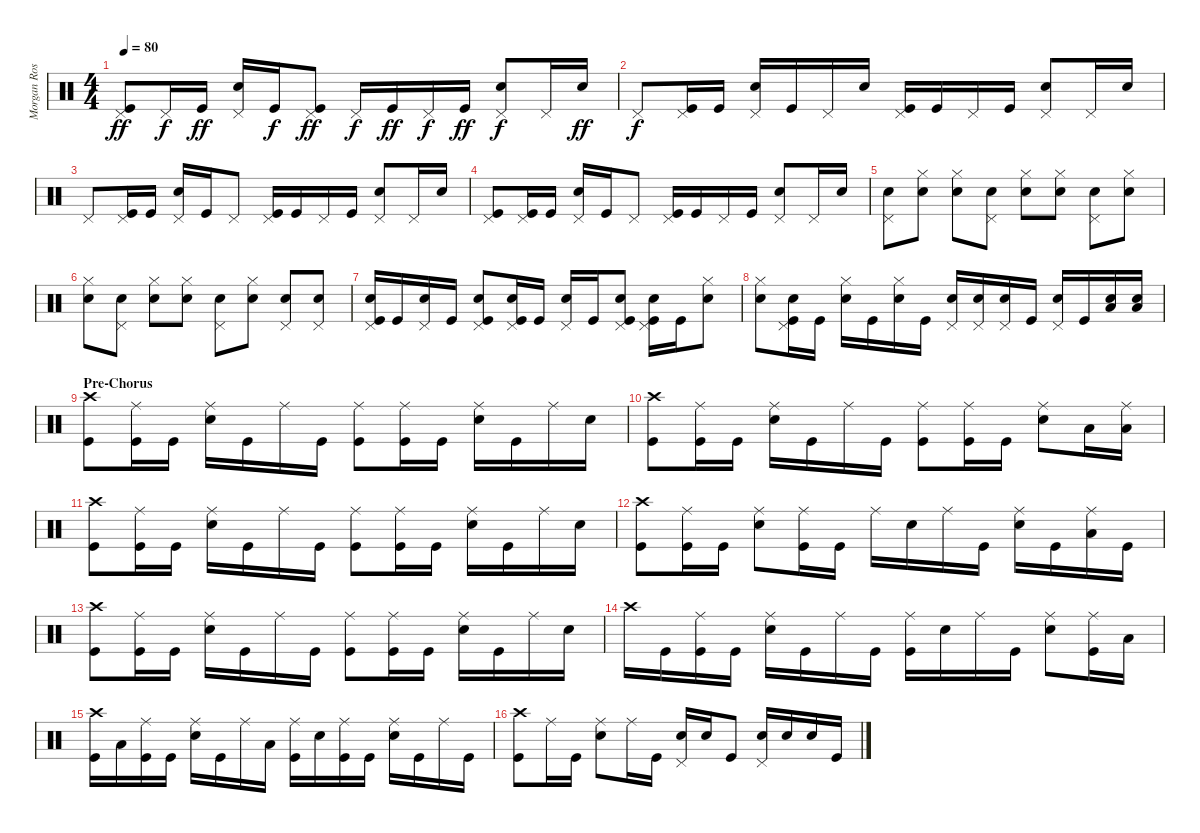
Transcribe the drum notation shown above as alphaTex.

\track ("Morgan Rose" "Morgan Ros") {instrument percussion}
\staff {score}
\articulation defaults
\ts (4 4)
\tempo 80
\clef neutral
\ks c
("Pedal Hi-Hat (hit)" "Kick (hit)").8{dy ff} "Pedal Hi-Hat (hit)".16{dy f} "Kick (hit)".16{dy ff} ("Pedal Hi-Hat (hit)" "Snare (hit) 2").16 "Kick (hit)".16{dy f} ("Pedal Hi-Hat (hit)" "Kick (hit)").8{dy ff} "Pedal Hi-Hat (hit)".16{dy f} "Kick (hit)".16{dy ff} "Pedal Hi-Hat (hit)".16{dy f} "Kick (hit)".16{dy ff} ("Pedal Hi-Hat (hit)" "Snare (hit) 2").8{dy f} "Pedal Hi-Hat (hit)".16 "Snare (hit) 2".16{dy ff} |
"Pedal Hi-Hat (hit)".8{dy f} ("Pedal Hi-Hat (hit)" "Kick (hit)").16 "Kick (hit)".16 ("Pedal Hi-Hat (hit)" "Snare (hit) 2").16 "Kick (hit)".16 "Pedal Hi-Hat (hit)".16 "Snare (hit) 2".16 ("Pedal Hi-Hat (hit)" "Kick (hit)").16 "Kick (hit)".16 "Pedal Hi-Hat (hit)".16 "Kick (hit)".16 ("Pedal Hi-Hat (hit)" "Snare (hit) 2").8 "Pedal Hi-Hat (hit)".16 "Snare (hit) 2".16 |
"Pedal Hi-Hat (hit)".8 ("Pedal Hi-Hat (hit)" "Kick (hit)").16 "Kick (hit)".16 ("Pedal Hi-Hat (hit)" "Snare (hit) 2").16 "Kick (hit)".16 "Pedal Hi-Hat (hit)".8 ("Pedal Hi-Hat (hit)" "Kick (hit)").16 "Kick (hit)".16 "Pedal Hi-Hat (hit)".16 "Kick (hit)".16 ("Pedal Hi-Hat (hit)" "Snare (hit) 2").8 "Pedal Hi-Hat (hit)".16 "Snare (hit) 2".16 |
("Pedal Hi-Hat (hit)" "Kick (hit)").8 ("Pedal Hi-Hat (hit)" "Kick (hit)").16 "Kick (hit)".16 ("Pedal Hi-Hat (hit)" "Snare (hit) 2").16 "Kick (hit)".16 "Pedal Hi-Hat (hit)".8 ("Pedal Hi-Hat (hit)" "Kick (hit)").16 "Kick (hit)".16 "Pedal Hi-Hat (hit)".16 "Kick (hit)".16 ("Pedal Hi-Hat (hit)" "Snare (hit) 2").8 "Pedal Hi-Hat (hit)".16 "Snare (hit) 2".16 |
("Pedal Hi-Hat (hit)" "Snare (hit) 2").8 ("Hi-Hat (closed)" "Snare (hit) 2").8 ("Hi-Hat (closed)" "Snare (hit) 2").8 ("Pedal Hi-Hat (hit)" "Snare (hit) 2").8 ("Hi-Hat (closed)" "Snare (hit) 2").8 ("Hi-Hat (closed)" "Snare (hit) 2").8 ("Pedal Hi-Hat (hit)" "Snare (hit) 2").8 ("Hi-Hat (closed)" "Snare (hit) 2").8 |
("Hi-Hat (closed)" "Snare (hit) 2").8 ("Pedal Hi-Hat (hit)" "Snare (hit) 2").8 ("Hi-Hat (closed)" "Snare (hit) 2").8 ("Hi-Hat (closed)" "Snare (hit) 2").8 ("Pedal Hi-Hat (hit)" "Snare (hit) 2").8 ("Hi-Hat (closed)" "Snare (hit) 2").8 ("Pedal Hi-Hat (hit)" "Snare (hit) 2").8 ("Pedal Hi-Hat (hit)" "Snare (hit) 2").8 |
("Pedal Hi-Hat (hit)" "Snare (hit) 2" "Kick (hit)").16 "Kick (hit)".16 ("Pedal Hi-Hat (hit)" "Snare (hit) 2").16 "Kick (hit)".16 ("Pedal Hi-Hat (hit)" "Snare (hit) 2" "Kick (hit)").8 ("Pedal Hi-Hat (hit)" "Snare (hit) 2" "Kick (hit)").16 "Kick (hit)".16 ("Pedal Hi-Hat (hit)" "Snare (hit) 2").16 "Kick (hit)".16 ("Pedal Hi-Hat (hit)" "Snare (hit) 2" "Kick (hit)").8 ("Pedal Hi-Hat (hit)" "Snare (hit) 2" "Kick (hit)").16 "Kick (hit)".16 ("Hi-Hat (closed)" "Snare (hit) 2").8 |
("Hi-Hat (closed)" "Snare (hit) 2").8 ("Pedal Hi-Hat (hit)" "Snare (hit) 2" "Kick (hit)").16 "Kick (hit)".16 ("Hi-Hat (closed)" "Snare (hit) 2").16 "Kick (hit)".16 ("Hi-Hat (closed)" "Snare (hit) 2").16 "Kick (hit)".16 ("Pedal Hi-Hat (hit)" "Snare (hit) 2").16 ("Pedal Hi-Hat (hit)" "Snare (hit) 2").16 ("Pedal Hi-Hat (hit)" "Snare (hit) 2").16 "Kick (hit)".16 ("Pedal Hi-Hat (hit)" "Snare (hit) 2").16 "Kick (hit)".16 ("Low Tom (hit)" "Snare (hit) 2").16 ("Low Tom (hit)" "Snare (hit) 2").16 |
\section ("" "Pre-Chorus")
("Crash high (hit)" "Kick (hit)").8 ("Ride (middle)" "Kick (hit)").16 "Kick (hit)".16 ("Ride (middle)" "Snare (hit) 2").16 "Kick (hit)".16 "Ride (middle)".16 "Kick (hit)".16 ("Ride (middle)" "Kick (hit)").8 ("Ride (middle)" "Kick (hit)").16 "Kick (hit)".16 ("Ride (middle)" "Snare (hit) 2").16 "Kick (hit)".16 "Ride (middle)".16 "Snare (hit) 2".16 |
("Crash high (hit)" "Kick (hit)").8 ("Ride (middle)" "Kick (hit)").16 "Kick (hit)".16 ("Ride (middle)" "Snare (hit) 2").16 "Kick (hit)".16 "Ride (middle)".16 "Kick (hit)".16 ("Ride (middle)" "Kick (hit)").8 ("Ride (middle)" "Kick (hit)").16 "Kick (hit)".16 ("Ride (middle)" "Snare (hit) 2").8 "Low Floor Tom (hit)".16 ("Ride (middle)" "Low Floor Tom (hit)").16 |
("Crash high (hit)" "Kick (hit)").8 ("Ride (middle)" "Kick (hit)").16 "Kick (hit)".16 ("Ride (middle)" "Snare (hit) 2").16 "Kick (hit)".16 "Ride (middle)".16 "Kick (hit)".16 ("Ride (middle)" "Kick (hit)").8 ("Ride (middle)" "Kick (hit)").16 "Kick (hit)".16 ("Ride (middle)" "Snare (hit) 2").16 "Kick (hit)".16 "Ride (middle)".16 "Snare (hit) 2".16 |
("Crash high (hit)" "Kick (hit)").8 ("Ride (middle)" "Kick (hit)").16 "Kick (hit)".16 ("Ride (middle)" "Snare (hit) 2").8 ("Ride (middle)" "Kick (hit)").16 "Kick (hit)".16 "Ride (middle)".16 "Snare (hit) 2".16 "Ride (middle)".16 "Kick (hit)".16 ("Ride (middle)" "Snare (hit) 2").16 "Kick (hit)".16 ("Ride (middle)" "Low Tom (hit)").16 "Kick (hit)".16 |
("Crash high (hit)" "Kick (hit)").8 ("Ride (middle)" "Kick (hit)").16 "Kick (hit)".16 ("Ride (middle)" "Snare (hit) 2").16 "Kick (hit)".16 "Ride (middle)".16 "Kick (hit)".16 ("Ride (middle)" "Kick (hit)").8 ("Ride (middle)" "Kick (hit)").16 "Kick (hit)".16 ("Ride (middle)" "Snare (hit) 2").16 "Kick (hit)".16 "Ride (middle)".16 "Snare (hit) 2".16 |
"Crash high (hit)".16 "Kick (hit)".16 ("Ride (middle)" "Kick (hit)").16 "Kick (hit)".16 ("Ride (middle)" "Snare (hit) 2").16 "Kick (hit)".16 "Ride (middle)".16 "Kick (hit)".16 ("Ride (middle)" "Kick (hit)").16 "Snare (hit) 2".16 "Ride (middle)".16 "Kick (hit)".16 ("Ride (middle)" "Snare (hit) 2").8 ("Ride (middle)" "Kick (hit)").16 "Low Tom (hit)".16 |
("Crash high (hit)" "Kick (hit)").16 "Low Tom (hit)".16 ("Ride (middle)" "Kick (hit)").16 "Kick (hit)".16 ("Ride (middle)" "Snare (hit) 2").16 "Kick (hit)".16 "Ride (middle)".16 "Low Tom (hit)".16 ("Ride (middle)" "Kick (hit)").16 "Snare (hit) 2".16 ("Ride (middle)" "Kick (hit)").16 "Kick (hit)".16 ("Ride (middle)" "Snare (hit) 2").16 "Kick (hit)".16 "Ride (middle)".16 "Kick (hit)".16 |
("Crash high (hit)" "Kick (hit)").8 "Ride (middle)".16 "Kick (hit)".16 ("Ride (middle)" "Snare (hit) 2").8 "Ride (middle)".16 "Kick (hit)".16 ("Pedal Hi-Hat (hit)" "Snare (hit) 2").16 "Snare (hit) 2".16 "Kick (hit)".8 ("Pedal Hi-Hat (hit)" "Snare (hit) 2").16 "Snare (hit) 2".16 "Snare (hit) 2".16 "Kick (hit)".16
